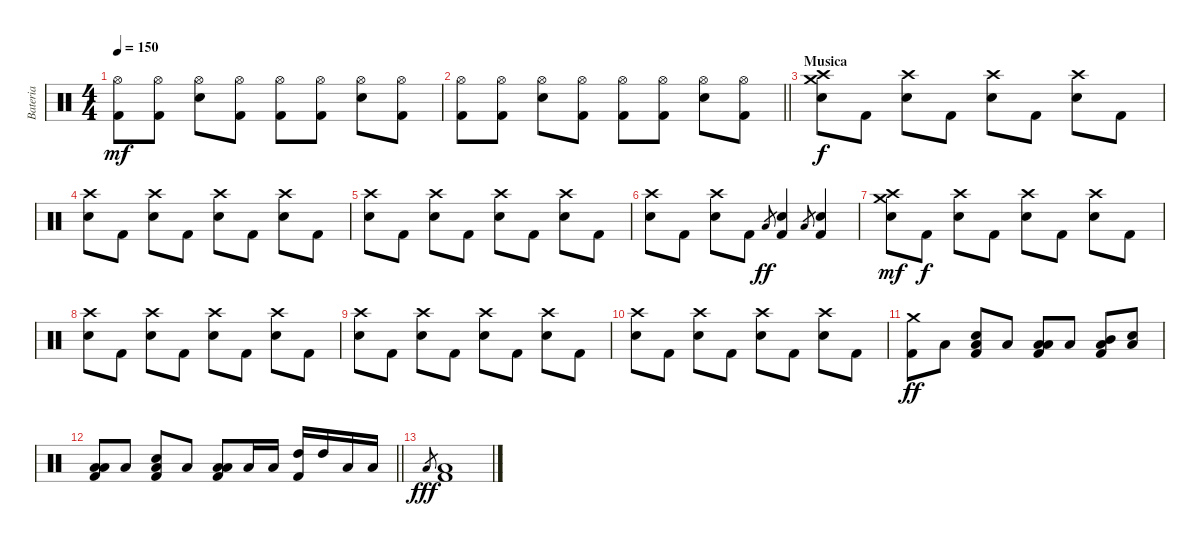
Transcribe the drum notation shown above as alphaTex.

\track ("Bateria" "Bateria") {instrument percussion}
\staff {score}
\articulation defaults
\ts (4 4)
\tempo 150
\clef neutral
\ks c
("Hi-Hat (open)" "Kick (hit) 2").8{dy mf} ("Hi-Hat (open)" "Kick (hit) 2").8 ("Hi-Hat (open)" "Snare (hit) 2").8 ("Hi-Hat (open)" "Kick (hit) 2").8 ("Hi-Hat (open)" "Kick (hit) 2").8 ("Hi-Hat (open)" "Kick (hit) 2").8 ("Hi-Hat (open)" "Snare (hit) 2").8 ("Hi-Hat (open)" "Kick (hit) 2").8 |
\barLineRight lightlight
("Hi-Hat (open)" "Kick (hit) 2").8 ("Hi-Hat (open)" "Kick (hit) 2").8 ("Hi-Hat (open)" "Snare (hit) 2").8 ("Hi-Hat (open)" "Kick (hit) 2").8 ("Hi-Hat (open)" "Kick (hit) 2").8 ("Hi-Hat (open)" "Kick (hit) 2").8 ("Hi-Hat (open)" "Snare (hit) 2").8 ("Hi-Hat (open)" "Kick (hit) 2").8 |
\section ("" "Musica")
("Crash medium (hit)" "Crash high (hit)" "Snare (hit) 2").8{dy f} "Kick (hit) 2".8 ("Crash high (hit)" "Snare (hit) 2").8 "Kick (hit) 2".8 ("Crash high (hit)" "Snare (hit) 2").8 "Kick (hit) 2".8 ("Crash high (hit)" "Snare (hit) 2").8 "Kick (hit) 2".8 |
("Crash high (hit)" "Snare (hit) 2").8 "Kick (hit) 2".8 ("Crash high (hit)" "Snare (hit) 2").8 "Kick (hit) 2".8 ("Crash high (hit)" "Snare (hit) 2").8 "Kick (hit) 2".8 ("Crash high (hit)" "Snare (hit) 2").8 "Kick (hit) 2".8 |
("Crash high (hit)" "Snare (hit) 2").8 "Kick (hit) 2".8 ("Crash high (hit)" "Snare (hit) 2").8 "Kick (hit) 2".8 ("Crash high (hit)" "Snare (hit) 2").8 "Kick (hit) 2".8 ("Crash high (hit)" "Snare (hit) 2").8 "Kick (hit) 2".8 |
("Crash high (hit)" "Snare (hit) 2").8 "Kick (hit) 2".8 ("Crash high (hit)" "Snare (hit) 2").8 "Kick (hit) 2".8 "Low Floor Tom (hit)".8{gr dy ff} ("Snare (hit) 2" "Kick (hit) 2").4 "Low Floor Tom (hit)".8{gr} ("Snare (hit) 2" "Kick (hit) 2").4 |
("Crash medium (hit)" "Crash high (hit)" "Snare (hit) 2").8{dy mf} "Kick (hit) 2".8{dy f} ("Crash high (hit)" "Snare (hit) 2").8 "Kick (hit) 2".8 ("Crash high (hit)" "Snare (hit) 2").8 "Kick (hit) 2".8 ("Crash high (hit)" "Snare (hit) 2").8 "Kick (hit) 2".8 |
("Crash high (hit)" "Snare (hit) 2").8 "Kick (hit) 2".8 ("Crash high (hit)" "Snare (hit) 2").8 "Kick (hit) 2".8 ("Crash high (hit)" "Snare (hit) 2").8 "Kick (hit) 2".8 ("Crash high (hit)" "Snare (hit) 2").8 "Kick (hit) 2".8 |
("Crash high (hit)" "Snare (hit) 2").8 "Kick (hit) 2".8 ("Crash high (hit)" "Snare (hit) 2").8 "Kick (hit) 2".8 ("Crash high (hit)" "Snare (hit) 2").8 "Kick (hit) 2".8 ("Crash high (hit)" "Snare (hit) 2").8 "Kick (hit) 2".8 |
("Crash high (hit)" "Snare (hit) 2").8 "Kick (hit) 2".8 ("Crash high (hit)" "Snare (hit) 2").8 "Kick (hit) 2".8 ("Crash high (hit)" "Snare (hit) 2").8 "Kick (hit) 2".8 ("Crash high (hit)" "Snare (hit) 2").8 "Kick (hit) 2".8 |
("Crash medium (hit)" "Kick (hit) 2").8{dy ff} "Low Floor Tom (hit)".8 ("Low Floor Tom (hit)" "Snare (hit) 2" "Kick (hit) 2").8 "Low Floor Tom (hit)".8 ("Low Tom (hit)" "Low Floor Tom (hit)" "Kick (hit) 2").8 "Low Floor Tom (hit)".8 ("Mid Tom (hit)" "Low Floor Tom (hit)" "Kick (hit) 2").8 ("Low Floor Tom (hit)" "Snare (hit) 2").8 |
\barLineRight lightlight
("Low Tom (hit)" "Low Floor Tom (hit)" "Kick (hit) 2").8 "Low Floor Tom (hit)".8 ("Low Floor Tom (hit)" "Snare (hit) 2" "Kick (hit) 2").8 "Low Floor Tom (hit)".8 ("Low Tom (hit)" "Low Floor Tom (hit)" "Kick (hit) 2").8 "Low Tom (hit)".16 "Low Tom (hit)".16 ("High Tom (hit)" "Kick (hit) 2").16 "High Tom (hit)".16 "Low Floor Tom (hit)".16 "Low Floor Tom (hit)".16 |
"Low Floor Tom (hit)".8{gr dy fff} ("Low Floor Tom (hit)" "Kick (hit) 2").1
